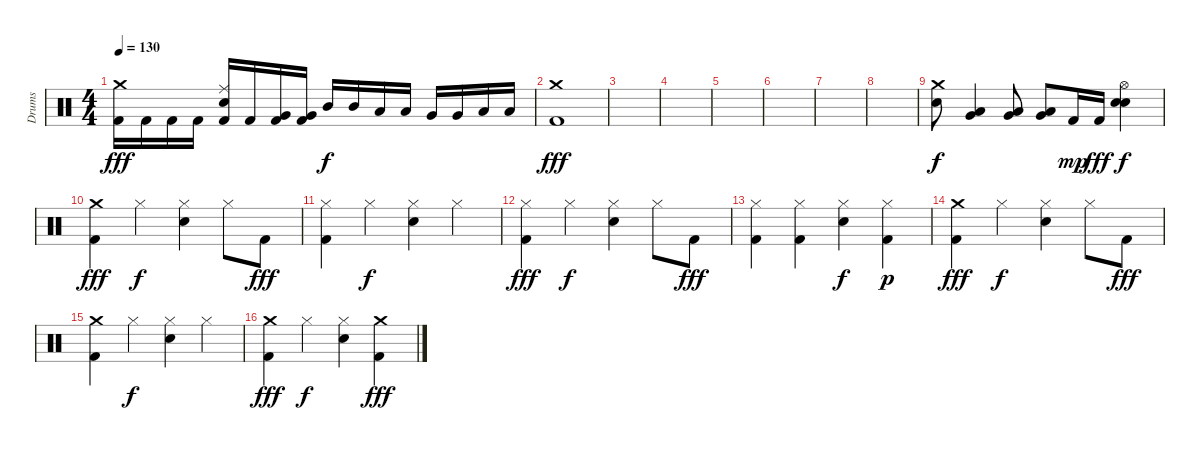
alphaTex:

\track ("Drums" "Drums") {instrument percussion}
\staff {score}
\articulation defaults
\ts (4 4)
\tempo 130
\clef neutral
\ks c
("Crash medium (hit)" "Kick (hit) 2").16{dy fff} "Kick (hit) 2".16 "Kick (hit) 2".16 "Kick (hit) 2".16 ("Ride (middle)" "Snare (hit) 2" "Kick (hit) 2").16 "Kick (hit) 2".16 ("Very Low Tom (hit)" "Kick (hit) 2").16 ("Very Low Tom (hit)" "Kick (hit) 2").16 "Mid Tom (hit)".16{dy f} "Mid Tom (hit)".16 "Low Tom (hit)".16 "Low Tom (hit)".16 "Very Low Tom (hit)".16 "Very Low Tom (hit)".16 "Low Floor Tom (hit)".16 "Low Floor Tom (hit)".16 |
("Crash medium (hit)" "Kick (hit) 2").1{dy fff} |
|
|
|
|
|
|
("Crash medium (hit)" "Electric Snare (hit)").8{dy f} ("Low Tom (hit)" "Very Low Tom (hit)").4 ("Low Tom (hit)" "Very Low Tom (hit)").8 ("Low Tom (hit)" "Very Low Tom (hit)").8 "Kick (hit) 2".16{dy mp} "Kick (hit) 2".16{dy fff} ("Hi-Hat (open)" "Snare (hit) 2" "Electric Snare (hit)").4{dy f} |
("Crash medium (hit)" "Kick (hit) 2").4{dy fff} "Hi-Hat (closed)".4{dy f} ("Hi-Hat (closed)" "Electric Snare (hit)").4 "Hi-Hat (closed)".8 "Kick (hit) 2".8{dy fff} |
("Hi-Hat (closed)" "Kick (hit) 2").4 "Hi-Hat (closed)".4{dy f} ("Hi-Hat (closed)" "Electric Snare (hit)").4 "Hi-Hat (closed)".4 |
("Hi-Hat (closed)" "Kick (hit) 2").4{dy fff} "Hi-Hat (closed)".4{dy f} ("Hi-Hat (closed)" "Electric Snare (hit)").4 "Hi-Hat (closed)".8 "Kick (hit) 2".8{dy fff} |
("Hi-Hat (closed)" "Kick (hit) 2").4 ("Hi-Hat (closed)" "Kick (hit) 2").4 ("Hi-Hat (closed)" "Electric Snare (hit)").4{dy f} ("Hi-Hat (closed)" "Kick (hit) 2").4{dy p} |
("Crash medium (hit)" "Kick (hit) 2").4{dy fff} "Hi-Hat (closed)".4{dy f} ("Hi-Hat (closed)" "Electric Snare (hit)").4 "Hi-Hat (closed)".8 "Kick (hit) 2".8{dy fff} |
("Crash medium (hit)" "Kick (hit) 2").4 "Hi-Hat (closed)".4{dy f} ("Hi-Hat (closed)" "Electric Snare (hit)").4 "Hi-Hat (closed)".4 |
("Crash medium (hit)" "Kick (hit) 2").4{dy fff} "Hi-Hat (closed)".4{dy f} ("Hi-Hat (closed)" "Electric Snare (hit)").4 ("Crash medium (hit)" "Kick (hit) 2").4{dy fff}
